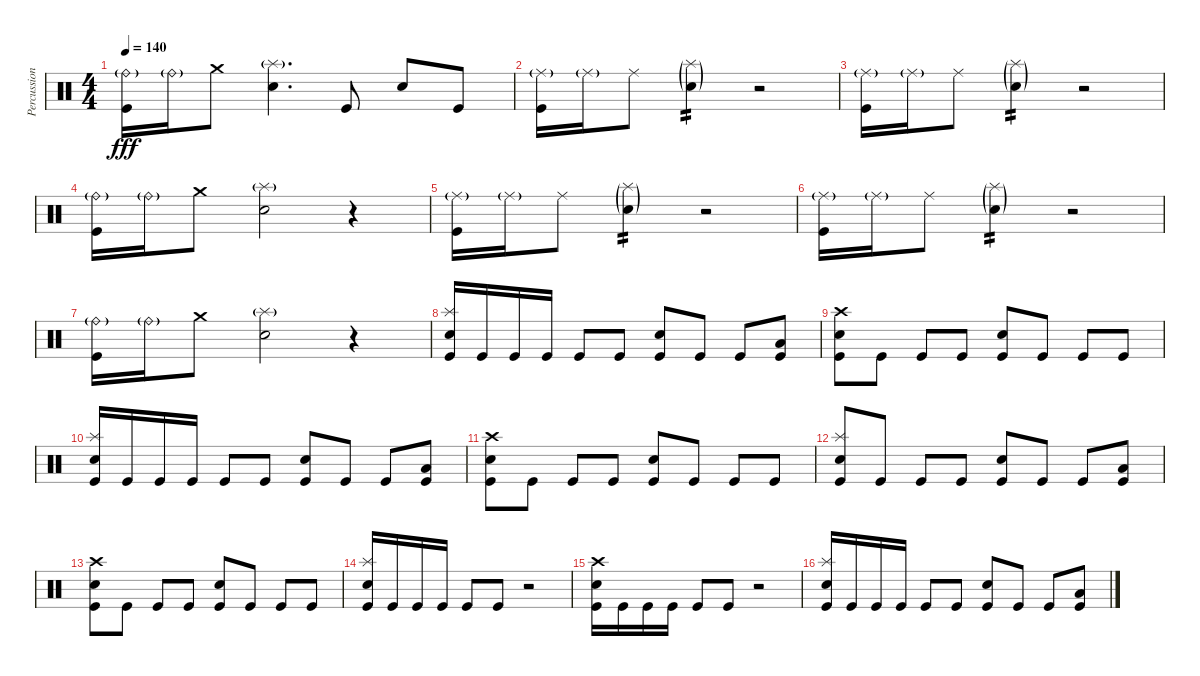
\track ("Percussion" "Percussion") {instrument percussion}
\staff {score}
\articulation defaults
\ts (4 4)
\tempo 140
\clef neutral
\ks c
("Ride (bell)"{g} "Kick (hit)").16{dy fff} "Ride (bell)"{g}.16 "Crash medium (hit)".8 ("Splash (hit)"{g} "Snare (hit) 2").4{d} "Kick (hit)".8 "Snare (hit) 2".8 "Kick (hit)".8 |
("Ride (middle)"{g} "Kick (hit)").16 "Ride (middle)"{g}.16 "Ride (middle)".8 ("Splash (hit)"{g} "Snare (hit) 2"{g}).4{tp 2} r.2 |
("Ride (middle)"{g} "Kick (hit)").16 "Ride (middle)"{g}.16 "Ride (middle)".8 ("Splash (hit)"{g} "Snare (hit) 2"{g}).4{tp 2} r.2 |
("Ride (bell)"{g} "Kick (hit)").16 "Ride (bell)"{g}.16 "Crash medium (hit)".8 ("Splash (hit)"{g} "Snare (hit) 2").2 r.4 |
("Ride (middle)"{g} "Kick (hit)").16 "Ride (middle)"{g}.16 "Ride (middle)".8 ("Splash (hit)"{g} "Snare (hit) 2"{g}).4{tp 2} r.2 |
("Ride (middle)"{g} "Kick (hit)").16 "Ride (middle)"{g}.16 "Ride (middle)".8 ("Splash (hit)"{g} "Snare (hit) 2"{g}).4{tp 2} r.2 |
("Ride (bell)"{g} "Kick (hit)").16 "Ride (bell)"{g}.16 "Crash medium (hit)".8 ("Splash (hit)"{g} "Snare (hit) 2").2 r.4 |
("Splash (hit)" "Snare (hit) 2" "Kick (hit)").16 "Kick (hit)".16 "Kick (hit)".16 "Kick (hit)".16 "Kick (hit)".8 "Kick (hit)".8 ("Snare (hit) 2" "Kick (hit)").8 "Kick (hit)".8 "Kick (hit)".8 ("Low Floor Tom (hit)" "Kick (hit)").8 |
("Crash high (hit)" "Snare (hit) 2" "Kick (hit)").8 "Kick (hit)".8 "Kick (hit)".8 "Kick (hit)".8 ("Snare (hit) 2" "Kick (hit)").8 "Kick (hit)".8 "Kick (hit)".8 "Kick (hit)".8 |
("Splash (hit)" "Snare (hit) 2" "Kick (hit)").16 "Kick (hit)".16 "Kick (hit)".16 "Kick (hit)".16 "Kick (hit)".8 "Kick (hit)".8 ("Snare (hit) 2" "Kick (hit)").8 "Kick (hit)".8 "Kick (hit)".8 ("Low Floor Tom (hit)" "Kick (hit)").8 |
("Crash high (hit)" "Snare (hit) 2" "Kick (hit)").8 "Kick (hit)".8 "Kick (hit)".8 "Kick (hit)".8 ("Snare (hit) 2" "Kick (hit)").8 "Kick (hit)".8 "Kick (hit)".8 "Kick (hit)".8 |
("Splash (hit)" "Snare (hit) 2" "Kick (hit)").8 "Kick (hit)".8 "Kick (hit)".8 "Kick (hit)".8 ("Snare (hit) 2" "Kick (hit)").8 "Kick (hit)".8 "Kick (hit)".8 ("Low Floor Tom (hit)" "Kick (hit)").8 |
("Crash high (hit)" "Snare (hit) 2" "Kick (hit)").8 "Kick (hit)".8 "Kick (hit)".8 "Kick (hit)".8 ("Snare (hit) 2" "Kick (hit)").8 "Kick (hit)".8 "Kick (hit)".8 "Kick (hit)".8 |
("Splash (hit)" "Snare (hit) 2" "Kick (hit)").16 "Kick (hit)".16 "Kick (hit)".16 "Kick (hit)".16 "Kick (hit)".8 "Kick (hit)".8 r.2 |
("Crash high (hit)" "Snare (hit) 2" "Kick (hit)").16 "Kick (hit)".16 "Kick (hit)".16 "Kick (hit)".16 "Kick (hit)".8 "Kick (hit)".8 r.2 |
("Splash (hit)" "Snare (hit) 2" "Kick (hit)").16 "Kick (hit)".16 "Kick (hit)".16 "Kick (hit)".16 "Kick (hit)".8 "Kick (hit)".8 ("Snare (hit) 2" "Kick (hit)").8 "Kick (hit)".8 "Kick (hit)".8 ("Low Floor Tom (hit)" "Kick (hit)").8
